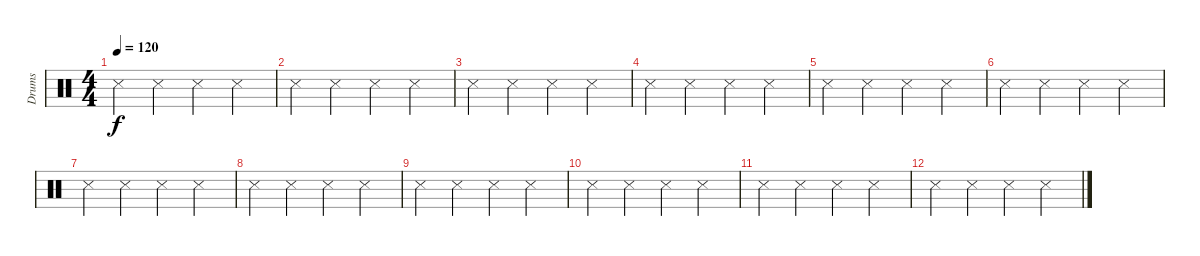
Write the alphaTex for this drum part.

\track ("Drums" "Drums") {instrument percussion}
\staff {score}
\articulation defaults
\ts (4 4)
\tempo 120
\clef neutral
\ks c "Metronome (hit)".4{dy f} "Metronome (hit)".4 "Metronome (hit)".4 "Metronome (hit)".4
|
"Metronome (hit)".4 "Metronome (hit)".4 "Metronome (hit)".4 "Metronome (hit)".4 |
"Metronome (hit)".4 "Metronome (hit)".4 "Metronome (hit)".4 "Metronome (hit)".4 |
"Metronome (hit)".4 "Metronome (hit)".4 "Metronome (hit)".4 "Metronome (hit)".4 |
"Metronome (hit)".4 "Metronome (hit)".4 "Metronome (hit)".4 "Metronome (hit)".4 |
"Metronome (hit)".4 "Metronome (hit)".4 "Metronome (hit)".4 "Metronome (hit)".4 |
"Metronome (hit)".4 "Metronome (hit)".4 "Metronome (hit)".4 "Metronome (hit)".4 |
"Metronome (hit)".4 "Metronome (hit)".4 "Metronome (hit)".4 "Metronome (hit)".4 |
"Metronome (hit)".4 "Metronome (hit)".4 "Metronome (hit)".4 "Metronome (hit)".4 |
"Metronome (hit)".4 "Metronome (hit)".4 "Metronome (hit)".4 "Metronome (hit)".4 |
"Metronome (hit)".4 "Metronome (hit)".4 "Metronome (hit)".4 "Metronome (hit)".4 |
"Metronome (hit)".4 "Metronome (hit)".4 "Metronome (hit)".4 "Metronome (hit)".4
